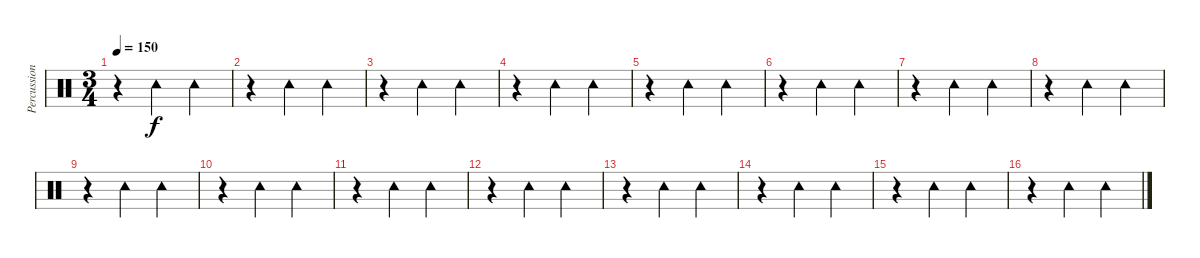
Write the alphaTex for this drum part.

\track ("Percussions" "Percussion") {instrument percussion bank 1}
\staff {score}
\articulation defaults
\ts (3 4)
\tempo 150
\clef neutral
\ks c
r.4{dy f} "Tambourine (hit)".4 "Tambourine (hit)".4 |
r.4 "Tambourine (hit)".4 "Tambourine (hit)".4 |
r.4 "Tambourine (hit)".4 "Tambourine (hit)".4 |
r.4 "Tambourine (hit)".4 "Tambourine (hit)".4 |
r.4 "Tambourine (hit)".4 "Tambourine (hit)".4 |
r.4 "Tambourine (hit)".4 "Tambourine (hit)".4 |
r.4 "Tambourine (hit)".4 "Tambourine (hit)".4 |
r.4 "Tambourine (hit)".4 "Tambourine (hit)".4 |
r.4 "Tambourine (hit)".4 "Tambourine (hit)".4 |
r.4 "Tambourine (hit)".4 "Tambourine (hit)".4 |
r.4 "Tambourine (hit)".4 "Tambourine (hit)".4 |
r.4 "Tambourine (hit)".4 "Tambourine (hit)".4 |
r.4 "Tambourine (hit)".4 "Tambourine (hit)".4 |
r.4 "Tambourine (hit)".4 "Tambourine (hit)".4 |
r.4 "Tambourine (hit)".4 "Tambourine (hit)".4 |
r.4 "Tambourine (hit)".4 "Tambourine (hit)".4
